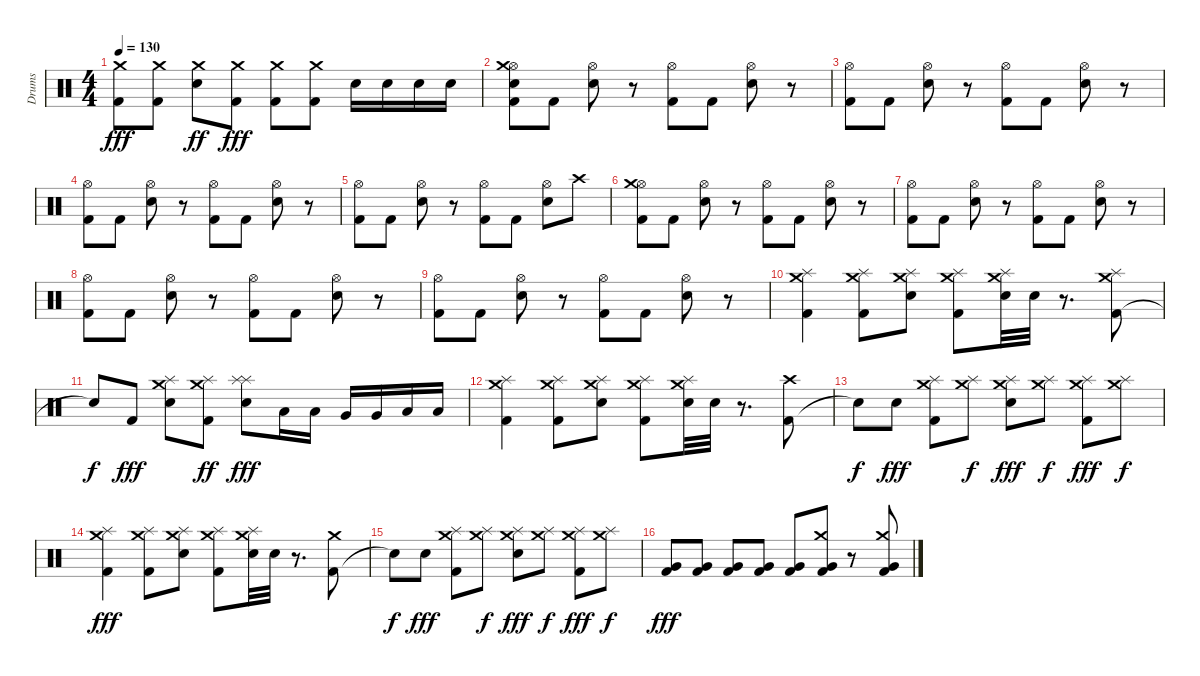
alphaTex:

\track ("Drums" "Drums") {instrument percussion}
\staff {score}
\articulation defaults
\ts (4 4)
\tempo 130
\clef neutral
\ks c
("Kick (hit) 2" "Crash medium (hit)").8{dy fff} ("Kick (hit) 2" "Crash medium (hit)").8 ("Snare (hit) 2" "Crash medium (hit)").8{dy ff} ("Kick (hit) 2" "Crash medium (hit)").8{dy fff} ("Kick (hit) 2" "Crash medium (hit)").8 ("Kick (hit) 2" "Crash medium (hit)").8 "Snare (hit) 2".16 "Snare (hit) 2".16 "Snare (hit) 2".16 "Snare (hit) 2".16 |
("Kick (hit) 2" "Hi-Hat (open)" "Crash medium (hit)" "Snare (hit) 2").8 "Kick (hit) 2".8 ("Snare (hit) 2" "Hi-Hat (open)").8 r.8 ("Kick (hit) 2" "Hi-Hat (open)").8 "Kick (hit) 2".8 ("Snare (hit) 2" "Hi-Hat (open)").8 r.8 |
("Kick (hit) 2" "Hi-Hat (open)").8 "Kick (hit) 2".8 ("Snare (hit) 2" "Hi-Hat (open)").8 r.8 ("Kick (hit) 2" "Hi-Hat (open)").8 "Kick (hit) 2".8 ("Snare (hit) 2" "Hi-Hat (open)").8 r.8 |
("Kick (hit) 2" "Hi-Hat (open)").8 "Kick (hit) 2".8 ("Snare (hit) 2" "Hi-Hat (open)").8 r.8 ("Kick (hit) 2" "Hi-Hat (open)").8 "Kick (hit) 2".8 ("Snare (hit) 2" "Hi-Hat (open)").8 r.8 |
("Kick (hit) 2" "Hi-Hat (open)").8 "Kick (hit) 2".8 ("Snare (hit) 2" "Hi-Hat (open)").8 r.8 ("Kick (hit) 2" "Hi-Hat (open)").8 "Kick (hit) 2".8 ("Snare (hit) 2" "Hi-Hat (open)").8 "Crash high (hit)".8 |
("Kick (hit) 2" "Hi-Hat (open)" "Crash medium (hit)").8 "Kick (hit) 2".8 ("Snare (hit) 2" "Hi-Hat (open)").8 r.8 ("Kick (hit) 2" "Hi-Hat (open)").8 "Kick (hit) 2".8 ("Snare (hit) 2" "Hi-Hat (open)").8 r.8 |
("Kick (hit) 2" "Hi-Hat (open)").8 "Kick (hit) 2".8 ("Snare (hit) 2" "Hi-Hat (open)").8 r.8 ("Kick (hit) 2" "Hi-Hat (open)").8 "Kick (hit) 2".8 ("Snare (hit) 2" "Hi-Hat (open)").8 r.8 |
("Kick (hit) 2" "Hi-Hat (open)").8 "Kick (hit) 2".8 ("Snare (hit) 2" "Hi-Hat (open)").8 r.8 ("Kick (hit) 2" "Hi-Hat (open)").8 "Kick (hit) 2".8 ("Snare (hit) 2" "Hi-Hat (open)").8 r.8 |
("Kick (hit) 2" "Hi-Hat (open)").8 "Kick (hit) 2".8 ("Snare (hit) 2" "Hi-Hat (open)").8 r.8 ("Kick (hit) 2" "Hi-Hat (open)").8 "Kick (hit) 2".8 ("Snare (hit) 2" "Hi-Hat (open)").8 r.8 |
("Kick (hit) 2" "Crash medium (hit)" "Splash (hit)").4 ("Kick (hit) 2" "Crash medium (hit)" "Splash (hit)").8 ("Snare (hit) 2" "Crash medium (hit)" "Splash (hit)").8 ("Kick (hit) 2" "Crash medium (hit)" "Splash (hit)").8 ("Snare (hit) 2" "Crash medium (hit)" "Splash (hit)").32 "Snare (hit) 2".32 r.8{d} ("Kick (hit) 2" "Crash medium (hit)" "Splash (hit)").8 |
"Snare (hit)"{t}.8{dy f} "Kick (hit) 2".8{dy fff} ("Snare (hit) 2" "Crash medium (hit)" "Splash (hit)").8 ("Kick (hit) 2" "Crash medium (hit)" "Splash (hit)").8{dy ff} ("Snare (hit) 2" "Splash (hit)" "Splash (hit)").8{dy fff} "Low Tom (hit)".16 "Low Tom (hit)".16 "Very Low Tom (hit)".16 "Very Low Tom (hit)".16 "Low Floor Tom (hit)".16 "Low Floor Tom (hit)".16 |
("Kick (hit) 2" "Crash medium (hit)" "Splash (hit)").4 ("Kick (hit) 2" "Crash medium (hit)" "Splash (hit)").8 ("Snare (hit) 2" "Crash medium (hit)" "Splash (hit)").8 ("Kick (hit) 2" "Crash medium (hit)" "Splash (hit)").8 ("Snare (hit) 2" "Crash medium (hit)" "Splash (hit)").32 "Snare (hit) 2".32 r.8{d} ("Kick (hit) 2" "Crash high (hit)").8 |
"Snare (hit)"{t}.8{dy f} "Snare (hit) 2".8{dy fff} ("Kick (hit) 2" "Crash medium (hit)" "Splash (hit)").8 ("Crash medium (hit)" "Splash (hit)").8{dy f} ("Snare (hit) 2" "Crash medium (hit)" "Splash (hit)").8{dy fff} ("Crash medium (hit)" "Splash (hit)").8{dy f} ("Kick (hit) 2" "Crash medium (hit)" "Splash (hit)").8{dy fff} ("Crash medium (hit)" "Splash (hit)").8{dy f} |
("Kick (hit) 2" "Crash medium (hit)" "Splash (hit)").4{dy fff} ("Kick (hit) 2" "Crash medium (hit)" "Splash (hit)").8 ("Snare (hit) 2" "Crash medium (hit)" "Splash (hit)").8 ("Kick (hit) 2" "Crash medium (hit)" "Splash (hit)").8 ("Snare (hit) 2" "Crash medium (hit)" "Splash (hit)").32 "Snare (hit) 2".32 r.8{d} ("Kick (hit) 2" "Crash medium (hit)").8 |
"Snare (hit)"{t}.8{dy f} "Snare (hit) 2".8{dy fff} ("Kick (hit) 2" "Crash medium (hit)" "Splash (hit)").8 ("Crash medium (hit)" "Splash (hit)").8{dy f} ("Snare (hit) 2" "Crash medium (hit)" "Splash (hit)").8{dy fff} ("Crash medium (hit)" "Splash (hit)").8{dy f} ("Kick (hit) 2" "Crash medium (hit)" "Splash (hit)").8{dy fff} ("Crash medium (hit)" "Splash (hit)").8{dy f} |
("Very Low Tom (hit)" "Kick (hit) 2").8{dy fff} ("Very Low Tom (hit)" "Kick (hit) 2").8 ("Very Low Tom (hit)" "Kick (hit) 2").8 ("Very Low Tom (hit)" "Kick (hit) 2").8 ("Very Low Tom (hit)" "Kick (hit) 2").8 ("Very Low Tom (hit)" "Kick (hit) 2" "Crash medium (hit)").8 r.8 ("Very Low Tom (hit)" "Kick (hit) 2" "Crash medium (hit)").8
